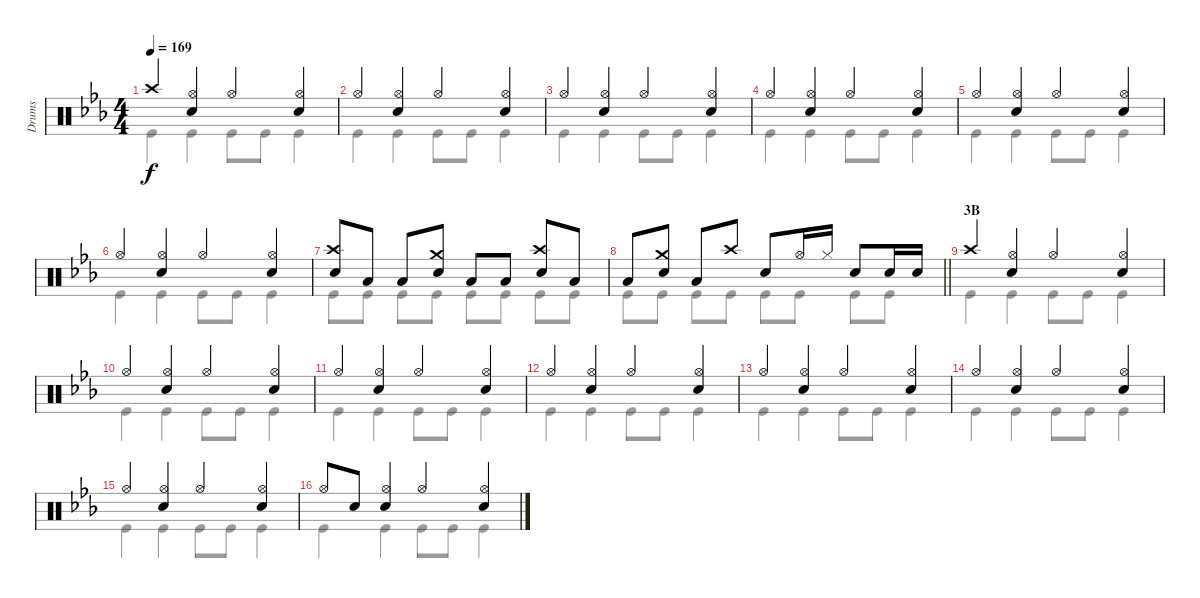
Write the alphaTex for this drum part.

\track ("Drums" "Drums") {instrument percussion}
\staff {score}
\articulation defaults
\voice
\ts (4 4)
\tempo 169
\clef neutral
\ks eb "Crash high (hit)".4{dy f}
("Hi-Hat (open)" "Snare (hit) 2").4 "Hi-Hat (open)".4 ("Hi-Hat (open)" "Snare (hit) 2").4 |
"Hi-Hat (open)".4 ("Hi-Hat (open)" "Snare (hit) 2").4 "Hi-Hat (open)".4 ("Hi-Hat (open)" "Snare (hit) 2").4 |
"Hi-Hat (open)".4 ("Hi-Hat (open)" "Snare (hit) 2").4 "Hi-Hat (open)".4 ("Hi-Hat (open)" "Snare (hit) 2").4 |
"Hi-Hat (open)".4 ("Hi-Hat (open)" "Snare (hit) 2").4 "Hi-Hat (open)".4 ("Hi-Hat (open)" "Snare (hit) 2").4 |
"Hi-Hat (open)".4 ("Hi-Hat (open)" "Snare (hit) 2").4 "Hi-Hat (open)".4 ("Hi-Hat (open)" "Snare (hit) 2").4 |
"Hi-Hat (open)".4 ("Hi-Hat (open)" "Snare (hit) 2").4 "Hi-Hat (open)".4 ("Hi-Hat (open)" "Snare (hit) 2").4 |
("Crash high (hit)" "Snare (hit) 2").8 "Low Tom (hit)".8 "Low Tom (hit)".8 ("Crash medium (hit)" "Snare (hit) 2").8 "Low Tom (hit)".8 "Low Tom (hit)".8 ("Crash high (hit)" "Snare (hit) 2").8 "Low Tom (hit)".8 |
\barLineRight lightlight "Low Tom (hit)".8
("Crash medium (hit)" "Snare (hit) 2").8 "Low Tom (hit)".8 "Crash high (hit)".8 "Snare (hit) 2".8 "Hi-Hat (open)".16 "Hi-Hat (closed)".16 "Snare (hit) 2".8 "Snare (hit) 2".16 "Snare (hit) 2".16 |
\section ("" "3B")
"Crash high (hit)".4 ("Hi-Hat (open)" "Snare (hit) 2").4 "Hi-Hat (open)".4 ("Hi-Hat (open)" "Snare (hit) 2").4 |
"Hi-Hat (open)".4 ("Hi-Hat (open)" "Snare (hit) 2").4 "Hi-Hat (open)".4 ("Hi-Hat (open)" "Snare (hit) 2").4 |
"Hi-Hat (open)".4 ("Hi-Hat (open)" "Snare (hit) 2").4 "Hi-Hat (open)".4 ("Hi-Hat (open)" "Snare (hit) 2").4 |
"Hi-Hat (open)".4 ("Hi-Hat (open)" "Snare (hit) 2").4 "Hi-Hat (open)".4 ("Hi-Hat (open)" "Snare (hit) 2").4 |
"Hi-Hat (open)".4 ("Hi-Hat (open)" "Snare (hit) 2").4 "Hi-Hat (open)".4 ("Hi-Hat (open)" "Snare (hit) 2").4 |
"Hi-Hat (open)".4 ("Hi-Hat (open)" "Snare (hit) 2").4 "Hi-Hat (open)".4 ("Hi-Hat (open)" "Snare (hit) 2").4 |
"Hi-Hat (open)".4 ("Hi-Hat (open)" "Snare (hit) 2").4 "Hi-Hat (open)".4 ("Hi-Hat (open)" "Snare (hit) 2").4 |
"Hi-Hat (open)".8 "Snare (hit) 2".8 ("Hi-Hat (open)" "Snare (hit) 2").4 "Hi-Hat (open)".4 ("Hi-Hat (open)" "Snare (hit) 2").4
\voice
\clef neutral
\ottava regular
\simile none
\ks eb "Kick (hit)".4{dy f} "Kick (hit)".4 "Kick (hit)".8 "Kick (hit)".8 "Kick (hit)".4
|
"Kick (hit)".4 "Kick (hit)".4 "Kick (hit)".8 "Kick (hit)".8 "Kick (hit)".4 |
"Kick (hit)".4 "Kick (hit)".4 "Kick (hit)".8 "Kick (hit)".8 "Kick (hit)".4 |
"Kick (hit)".4 "Kick (hit)".4 "Kick (hit)".8 "Kick (hit)".8 "Kick (hit)".4 |
"Kick (hit)".4 "Kick (hit)".4 "Kick (hit)".8 "Kick (hit)".8 "Kick (hit)".4 |
"Kick (hit)".4 "Kick (hit)".4 "Kick (hit)".8 "Kick (hit)".8 "Kick (hit)".4 |
"Kick (hit)".8 "Kick (hit)".8 "Kick (hit)".8 "Kick (hit)".8 "Kick (hit)".8 "Kick (hit)".8 "Kick (hit)".8 "Kick (hit)".8 |
\barLineRight lightlight "Kick (hit)".8 "Kick (hit)".8 "Kick (hit)".8 "Kick (hit)".8 "Kick (hit)".8 "Kick (hit)".8 "Kick (hit)".8 "Kick (hit)".8
|
"Kick (hit)".4 "Kick (hit)".4 "Kick (hit)".8 "Kick (hit)".8 "Kick (hit)".4 |
"Kick (hit)".4 "Kick (hit)".4 "Kick (hit)".8 "Kick (hit)".8 "Kick (hit)".4 |
"Kick (hit)".4 "Kick (hit)".4 "Kick (hit)".8 "Kick (hit)".8 "Kick (hit)".4 |
"Kick (hit)".4 "Kick (hit)".4 "Kick (hit)".8 "Kick (hit)".8 "Kick (hit)".4 |
"Kick (hit)".4 "Kick (hit)".4 "Kick (hit)".8 "Kick (hit)".8 "Kick (hit)".4 |
"Kick (hit)".4 "Kick (hit)".4 "Kick (hit)".8 "Kick (hit)".8 "Kick (hit)".4 |
"Kick (hit)".4 "Kick (hit)".4 "Kick (hit)".8 "Kick (hit)".8 "Kick (hit)".4 |
"Kick (hit)".4 "Kick (hit)".4 "Kick (hit)".8 "Kick (hit)".8 "Kick (hit)".4
